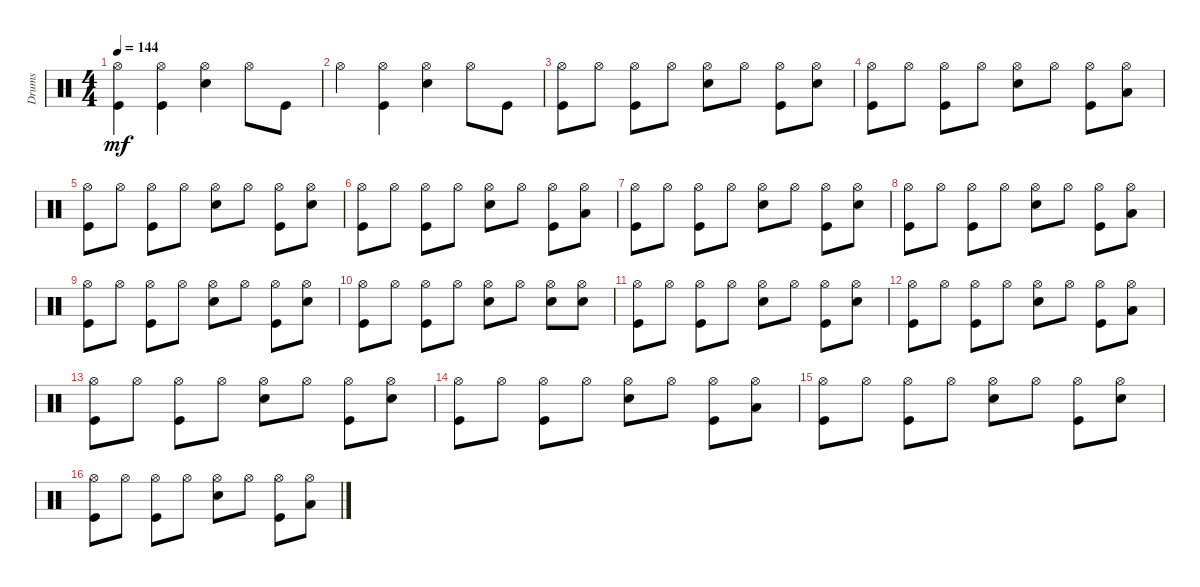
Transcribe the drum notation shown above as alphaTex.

\track ("Drums               " "Drums     ") {instrument percussion}
\staff {score}
\articulation defaults
\ts (4 4)
\tempo 144
\clef neutral
\ks c
("Kick (hit)" "Hi-Hat (open)").4{dy mf} ("Kick (hit)" "Hi-Hat (open)").4 ("Snare (hit) 2" "Hi-Hat (open)").4 "Hi-Hat (open)".8 "Kick (hit)".8 |
"Hi-Hat (open)".4 ("Hi-Hat (open)" "Kick (hit)").4 ("Snare (hit) 2" "Hi-Hat (open)").4 "Hi-Hat (open)".8 "Kick (hit)".8 |
("Kick (hit)" "Hi-Hat (open)").8 "Hi-Hat (open)".8 ("Kick (hit)" "Hi-Hat (open)").8 "Hi-Hat (open)".8 ("Snare (hit) 2" "Hi-Hat (open)").8 "Hi-Hat (open)".8 ("Kick (hit)" "Hi-Hat (open)").8 ("Snare (hit) 2" "Hi-Hat (open)").8 |
("Hi-Hat (open)" "Kick (hit)").8 "Hi-Hat (open)".8 ("Kick (hit)" "Hi-Hat (open)").8 "Hi-Hat (open)".8 ("Snare (hit) 2" "Hi-Hat (open)").8 "Hi-Hat (open)".8 ("Kick (hit)" "Hi-Hat (open)").8 ("Low Tom (hit)" "Hi-Hat (open)").8 |
("Kick (hit)" "Hi-Hat (open)").8 "Hi-Hat (open)".8 ("Kick (hit)" "Hi-Hat (open)").8 "Hi-Hat (open)".8 ("Snare (hit) 2" "Hi-Hat (open)").8 "Hi-Hat (open)".8 ("Kick (hit)" "Hi-Hat (open)").8 ("Snare (hit) 2" "Hi-Hat (open)").8 |
("Kick (hit)" "Hi-Hat (open)").8 "Hi-Hat (open)".8 ("Kick (hit)" "Hi-Hat (open)").8 "Hi-Hat (open)".8 ("Snare (hit) 2" "Hi-Hat (open)").8 "Hi-Hat (open)".8 ("Kick (hit)" "Hi-Hat (open)").8 ("Low Tom (hit)" "Hi-Hat (open)").8 |
("Kick (hit)" "Hi-Hat (open)").8 "Hi-Hat (open)".8 ("Kick (hit)" "Hi-Hat (open)").8 "Hi-Hat (open)".8 ("Snare (hit) 2" "Hi-Hat (open)").8 "Hi-Hat (open)".8 ("Hi-Hat (open)" "Kick (hit)").8 ("Snare (hit) 2" "Hi-Hat (open)").8 |
("Kick (hit)" "Hi-Hat (open)").8 "Hi-Hat (open)".8 ("Kick (hit)" "Hi-Hat (open)").8 "Hi-Hat (open)".8 ("Snare (hit) 2" "Hi-Hat (open)").8 "Hi-Hat (open)".8 ("Kick (hit)" "Hi-Hat (open)").8 ("Low Tom (hit)" "Hi-Hat (open)").8 |
("Kick (hit)" "Hi-Hat (open)").8 "Hi-Hat (open)".8 ("Kick (hit)" "Hi-Hat (open)").8 "Hi-Hat (open)".8 ("Snare (hit) 2" "Hi-Hat (open)").8 "Hi-Hat (open)".8 ("Hi-Hat (open)" "Kick (hit)").8 ("Snare (hit) 2" "Hi-Hat (open)").8 |
("Kick (hit)" "Hi-Hat (open)").8 "Hi-Hat (open)".8 ("Kick (hit)" "Hi-Hat (open)").8 "Hi-Hat (open)".8 ("Snare (hit) 2" "Hi-Hat (open)").8 "Hi-Hat (open)".8 ("Hi-Hat (open)" "Snare (hit) 2").8 ("Snare (hit) 2" "Hi-Hat (open)").8 |
("Kick (hit)" "Hi-Hat (open)").8 "Hi-Hat (open)".8 ("Kick (hit)" "Hi-Hat (open)").8 "Hi-Hat (open)".8 ("Snare (hit) 2" "Hi-Hat (open)").8 "Hi-Hat (open)".8 ("Kick (hit)" "Hi-Hat (open)").8 ("Snare (hit) 2" "Hi-Hat (open)").8 |
("Hi-Hat (open)" "Kick (hit)").8 "Hi-Hat (open)".8 ("Kick (hit)" "Hi-Hat (open)").8 "Hi-Hat (open)".8 ("Snare (hit) 2" "Hi-Hat (open)").8 "Hi-Hat (open)".8 ("Kick (hit)" "Hi-Hat (open)").8 ("Low Tom (hit)" "Hi-Hat (open)").8 |
("Kick (hit)" "Hi-Hat (open)").8 "Hi-Hat (open)".8 ("Kick (hit)" "Hi-Hat (open)").8 "Hi-Hat (open)".8 ("Snare (hit) 2" "Hi-Hat (open)").8 "Hi-Hat (open)".8 ("Kick (hit)" "Hi-Hat (open)").8 ("Snare (hit) 2" "Hi-Hat (open)").8 |
("Kick (hit)" "Hi-Hat (open)").8 "Hi-Hat (open)".8 ("Kick (hit)" "Hi-Hat (open)").8 "Hi-Hat (open)".8 ("Snare (hit) 2" "Hi-Hat (open)").8 "Hi-Hat (open)".8 ("Kick (hit)" "Hi-Hat (open)").8 ("Low Tom (hit)" "Hi-Hat (open)").8 |
("Kick (hit)" "Hi-Hat (open)").8 "Hi-Hat (open)".8 ("Kick (hit)" "Hi-Hat (open)").8 "Hi-Hat (open)".8 ("Snare (hit) 2" "Hi-Hat (open)").8 "Hi-Hat (open)".8 ("Hi-Hat (open)" "Kick (hit)").8 ("Snare (hit) 2" "Hi-Hat (open)").8 |
("Kick (hit)" "Hi-Hat (open)").8 "Hi-Hat (open)".8 ("Kick (hit)" "Hi-Hat (open)").8 "Hi-Hat (open)".8 ("Snare (hit) 2" "Hi-Hat (open)").8 "Hi-Hat (open)".8 ("Kick (hit)" "Hi-Hat (open)").8 ("Low Tom (hit)" "Hi-Hat (open)").8
